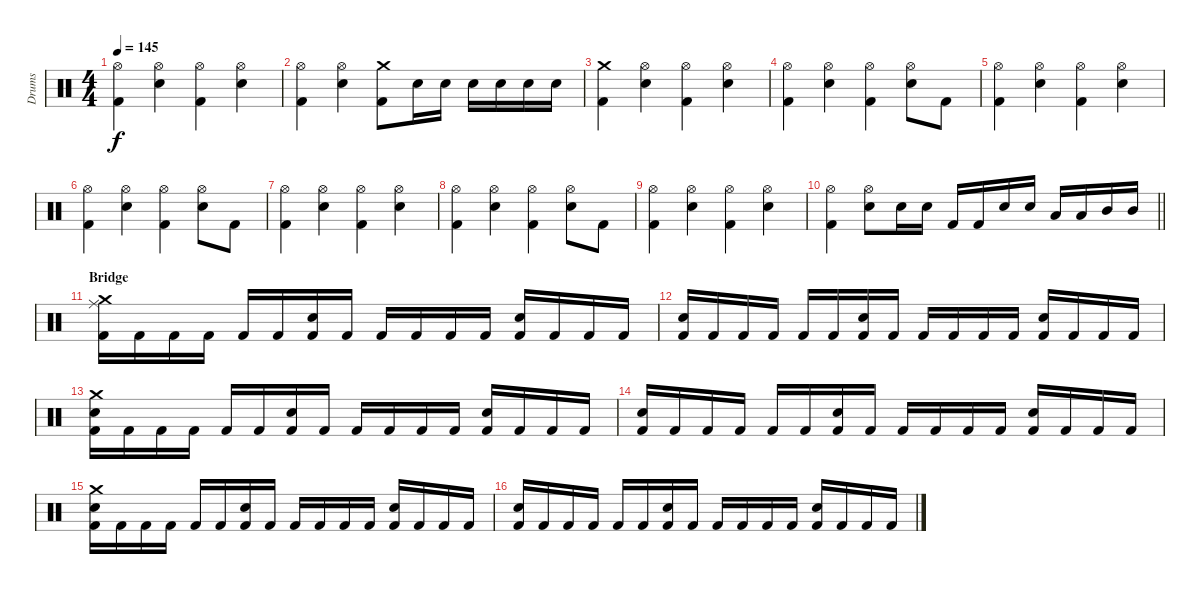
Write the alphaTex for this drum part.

\track ("Drums" "Drums") {instrument percussion}
\staff {score}
\articulation defaults
\ts (4 4)
\tempo 145
\clef neutral
\ks c
("Hi-Hat (open)" "Kick (hit) 2").4{dy f} ("Hi-Hat (open)" "Electric Snare (hit)").4 ("Hi-Hat (open)" "Kick (hit) 2").4 ("Hi-Hat (open)" "Electric Snare (hit)").4 |
("Hi-Hat (open)" "Kick (hit) 2").4 ("Hi-Hat (open)" "Electric Snare (hit)").4 ("Crash medium (hit)" "Kick (hit) 2").8 "Electric Snare (hit)".16 "Electric Snare (hit)".16 "Electric Snare (hit)".16 "Electric Snare (hit)".16 "Electric Snare (hit)".16 "Electric Snare (hit)".16 |
("Crash medium (hit)" "Kick (hit) 2").4 ("Hi-Hat (open)" "Electric Snare (hit)").4 ("Hi-Hat (open)" "Kick (hit) 2").4 ("Hi-Hat (open)" "Electric Snare (hit)").4 |
("Hi-Hat (open)" "Kick (hit) 2").4 ("Hi-Hat (open)" "Electric Snare (hit)").4 ("Hi-Hat (open)" "Kick (hit) 2").4 ("Hi-Hat (open)" "Electric Snare (hit)").8 "Kick (hit) 2".8 |
("Hi-Hat (open)" "Kick (hit) 2").4 ("Hi-Hat (open)" "Electric Snare (hit)").4 ("Hi-Hat (open)" "Kick (hit) 2").4 ("Hi-Hat (open)" "Electric Snare (hit)").4 |
("Hi-Hat (open)" "Kick (hit) 2").4 ("Hi-Hat (open)" "Electric Snare (hit)").4 ("Hi-Hat (open)" "Kick (hit) 2").4 ("Hi-Hat (open)" "Electric Snare (hit)").8 "Kick (hit) 2".8 |
("Hi-Hat (open)" "Kick (hit) 2").4 ("Hi-Hat (open)" "Electric Snare (hit)").4 ("Hi-Hat (open)" "Kick (hit) 2").4 ("Hi-Hat (open)" "Electric Snare (hit)").4 |
("Hi-Hat (open)" "Kick (hit) 2").4 ("Hi-Hat (open)" "Electric Snare (hit)").4 ("Hi-Hat (open)" "Kick (hit) 2").4 ("Hi-Hat (open)" "Electric Snare (hit)").8 "Kick (hit) 2".8 |
("Hi-Hat (open)" "Kick (hit) 2").4 ("Hi-Hat (open)" "Electric Snare (hit)").4 ("Hi-Hat (open)" "Kick (hit) 2").4 ("Hi-Hat (open)" "Electric Snare (hit)").4 |
\barLineRight lightlight
("Hi-Hat (open)" "Kick (hit) 2").4 ("Hi-Hat (open)" "Electric Snare (hit)").8 "Electric Snare (hit)".16 "Electric Snare (hit)".16 "Kick (hit) 2".16 "Kick (hit) 2".16 "Electric Snare (hit)".16 "Electric Snare (hit)".16 "Low Tom (hit)".16 "Low Tom (hit)".16 "Mid Tom (hit)".16 "Mid Tom (hit)".16 |
\section ("" "Bridge")
("Crash medium (hit)" "Ride (middle)" "Kick (hit) 2").16 "Kick (hit) 2".16 "Kick (hit) 2".16 "Kick (hit) 2".16 "Kick (hit) 2".16 "Kick (hit) 2".16 ("Electric Snare (hit)" "Kick (hit) 2").16 "Kick (hit) 2".16 "Kick (hit) 2".16 "Kick (hit) 2".16 "Kick (hit) 2".16 "Kick (hit) 2".16 ("Electric Snare (hit)" "Kick (hit) 2").16 "Kick (hit) 2".16 "Kick (hit) 2".16 "Kick (hit) 2".16 |
("Electric Snare (hit)" "Kick (hit) 2").16 "Kick (hit) 2".16 "Kick (hit) 2".16 "Kick (hit) 2".16 "Kick (hit) 2".16 "Kick (hit) 2".16 ("Electric Snare (hit)" "Kick (hit) 2").16 "Kick (hit) 2".16 "Kick (hit) 2".16 "Kick (hit) 2".16 "Kick (hit) 2".16 "Kick (hit) 2".16 ("Electric Snare (hit)" "Kick (hit) 2").16 "Kick (hit) 2".16 "Kick (hit) 2".16 "Kick (hit) 2".16 |
("Crash medium (hit)" "Electric Snare (hit)" "Kick (hit) 2").16 "Kick (hit) 2".16 "Kick (hit) 2".16 "Kick (hit) 2".16 "Kick (hit) 2".16 "Kick (hit) 2".16 ("Electric Snare (hit)" "Kick (hit) 2").16 "Kick (hit) 2".16 "Kick (hit) 2".16 "Kick (hit) 2".16 "Kick (hit) 2".16 "Kick (hit) 2".16 ("Electric Snare (hit)" "Kick (hit) 2").16 "Kick (hit) 2".16 "Kick (hit) 2".16 "Kick (hit) 2".16 |
("Electric Snare (hit)" "Kick (hit) 2").16 "Kick (hit) 2".16 "Kick (hit) 2".16 "Kick (hit) 2".16 "Kick (hit) 2".16 "Kick (hit) 2".16 ("Electric Snare (hit)" "Kick (hit) 2").16 "Kick (hit) 2".16 "Kick (hit) 2".16 "Kick (hit) 2".16 "Kick (hit) 2".16 "Kick (hit) 2".16 ("Electric Snare (hit)" "Kick (hit) 2").16 "Kick (hit) 2".16 "Kick (hit) 2".16 "Kick (hit) 2".16 |
("Crash medium (hit)" "Electric Snare (hit)" "Kick (hit) 2").16 "Kick (hit) 2".16 "Kick (hit) 2".16 "Kick (hit) 2".16 "Kick (hit) 2".16 "Kick (hit) 2".16 ("Electric Snare (hit)" "Kick (hit) 2").16 "Kick (hit) 2".16 "Kick (hit) 2".16 "Kick (hit) 2".16 "Kick (hit) 2".16 "Kick (hit) 2".16 ("Electric Snare (hit)" "Kick (hit) 2").16 "Kick (hit) 2".16 "Kick (hit) 2".16 "Kick (hit) 2".16 |
("Electric Snare (hit)" "Kick (hit) 2").16 "Kick (hit) 2".16 "Kick (hit) 2".16 "Kick (hit) 2".16 "Kick (hit) 2".16 "Kick (hit) 2".16 ("Electric Snare (hit)" "Kick (hit) 2").16 "Kick (hit) 2".16 "Kick (hit) 2".16 "Kick (hit) 2".16 "Kick (hit) 2".16 "Kick (hit) 2".16 ("Electric Snare (hit)" "Kick (hit) 2").16 "Kick (hit) 2".16 "Kick (hit) 2".16 "Kick (hit) 2".16
